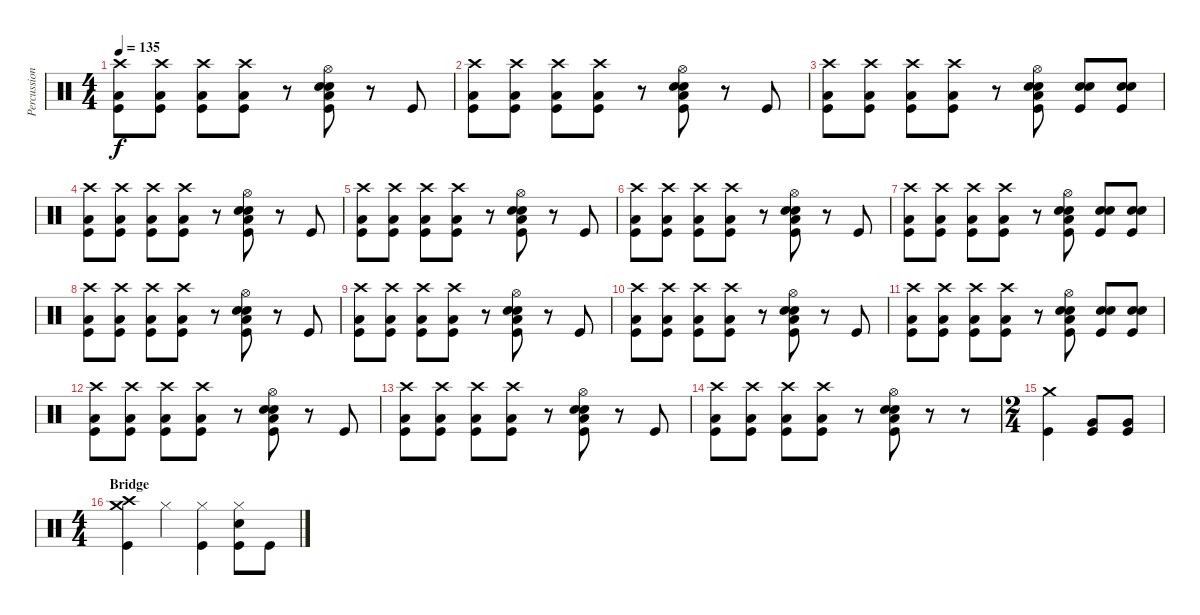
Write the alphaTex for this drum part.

\track ("Percussions" "Percussion") {instrument percussion}
\staff {score}
\articulation defaults
\ts (4 4)
\tempo 135
\clef neutral
\ks c
("Crash high (hit)" "Low Floor Tom (hit)" "Kick (hit)").8{dy f} ("Crash high (hit)" "Low Floor Tom (hit)" "Kick (hit)").8 ("Crash high (hit)" "Low Floor Tom (hit)" "Kick (hit)").8 ("Crash high (hit)" "Low Floor Tom (hit)" "Kick (hit)").8 r.8 ("Hi-Hat (open)" "Electric Snare (hit)" "Snare (hit) 2" "Low Floor Tom (hit)" "Kick (hit)").8 r.8 "Kick (hit)".8 |
("Crash high (hit)" "Low Floor Tom (hit)" "Kick (hit)").8 ("Crash high (hit)" "Low Floor Tom (hit)" "Kick (hit)").8 ("Crash high (hit)" "Low Floor Tom (hit)" "Kick (hit)").8 ("Crash high (hit)" "Low Floor Tom (hit)" "Kick (hit)").8 r.8 ("Hi-Hat (open)" "Electric Snare (hit)" "Snare (hit) 2" "Low Floor Tom (hit)" "Kick (hit)").8 r.8 "Kick (hit)".8 |
("Crash high (hit)" "Low Floor Tom (hit)" "Kick (hit)").8 ("Crash high (hit)" "Low Floor Tom (hit)" "Kick (hit)").8 ("Crash high (hit)" "Low Floor Tom (hit)" "Kick (hit)").8 ("Crash high (hit)" "Low Floor Tom (hit)" "Kick (hit)").8 r.8 ("Hi-Hat (open)" "Electric Snare (hit)" "Snare (hit) 2" "Low Floor Tom (hit)" "Kick (hit)").8 ("Electric Snare (hit)" "Snare (hit) 2" "Kick (hit)").8 ("Electric Snare (hit)" "Snare (hit) 2" "Kick (hit)").8 |
("Crash high (hit)" "Low Floor Tom (hit)" "Kick (hit)").8 ("Crash high (hit)" "Low Floor Tom (hit)" "Kick (hit)").8 ("Crash high (hit)" "Low Floor Tom (hit)" "Kick (hit)").8 ("Crash high (hit)" "Low Floor Tom (hit)" "Kick (hit)").8 r.8 ("Hi-Hat (open)" "Electric Snare (hit)" "Snare (hit) 2" "Low Floor Tom (hit)" "Kick (hit)").8 r.8 "Kick (hit)".8 |
("Crash high (hit)" "Low Floor Tom (hit)" "Kick (hit)").8 ("Crash high (hit)" "Low Floor Tom (hit)" "Kick (hit)").8 ("Crash high (hit)" "Low Floor Tom (hit)" "Kick (hit)").8 ("Crash high (hit)" "Low Floor Tom (hit)" "Kick (hit)").8 r.8 ("Hi-Hat (open)" "Electric Snare (hit)" "Snare (hit) 2" "Low Floor Tom (hit)" "Kick (hit)").8 r.8 "Kick (hit)".8 |
("Crash high (hit)" "Low Floor Tom (hit)" "Kick (hit)").8 ("Crash high (hit)" "Low Floor Tom (hit)" "Kick (hit)").8 ("Crash high (hit)" "Low Floor Tom (hit)" "Kick (hit)").8 ("Crash high (hit)" "Low Floor Tom (hit)" "Kick (hit)").8 r.8 ("Hi-Hat (open)" "Electric Snare (hit)" "Snare (hit) 2" "Low Floor Tom (hit)" "Kick (hit)").8 r.8 "Kick (hit)".8 |
("Crash high (hit)" "Low Floor Tom (hit)" "Kick (hit)").8 ("Crash high (hit)" "Low Floor Tom (hit)" "Kick (hit)").8 ("Crash high (hit)" "Low Floor Tom (hit)" "Kick (hit)").8 ("Crash high (hit)" "Low Floor Tom (hit)" "Kick (hit)").8 r.8 ("Hi-Hat (open)" "Electric Snare (hit)" "Snare (hit) 2" "Low Floor Tom (hit)" "Kick (hit)").8 ("Electric Snare (hit)" "Snare (hit) 2" "Kick (hit)").8 ("Electric Snare (hit)" "Snare (hit) 2" "Kick (hit)").8 |
("Crash high (hit)" "Low Floor Tom (hit)" "Kick (hit)").8 ("Crash high (hit)" "Low Floor Tom (hit)" "Kick (hit)").8 ("Crash high (hit)" "Low Floor Tom (hit)" "Kick (hit)").8 ("Crash high (hit)" "Low Floor Tom (hit)" "Kick (hit)").8 r.8 ("Hi-Hat (open)" "Electric Snare (hit)" "Snare (hit) 2" "Low Floor Tom (hit)" "Kick (hit)").8 r.8 "Kick (hit)".8 |
("Crash high (hit)" "Low Floor Tom (hit)" "Kick (hit)").8 ("Crash high (hit)" "Low Floor Tom (hit)" "Kick (hit)").8 ("Crash high (hit)" "Low Floor Tom (hit)" "Kick (hit)").8 ("Crash high (hit)" "Low Floor Tom (hit)" "Kick (hit)").8 r.8 ("Hi-Hat (open)" "Electric Snare (hit)" "Snare (hit) 2" "Low Floor Tom (hit)" "Kick (hit)").8 r.8 "Kick (hit)".8 |
("Crash high (hit)" "Low Floor Tom (hit)" "Kick (hit)").8 ("Crash high (hit)" "Low Floor Tom (hit)" "Kick (hit)").8 ("Crash high (hit)" "Low Floor Tom (hit)" "Kick (hit)").8 ("Crash high (hit)" "Low Floor Tom (hit)" "Kick (hit)").8 r.8 ("Hi-Hat (open)" "Electric Snare (hit)" "Snare (hit) 2" "Low Floor Tom (hit)" "Kick (hit)").8 r.8 "Kick (hit)".8 |
("Crash high (hit)" "Low Floor Tom (hit)" "Kick (hit)").8 ("Crash high (hit)" "Low Floor Tom (hit)" "Kick (hit)").8 ("Crash high (hit)" "Low Floor Tom (hit)" "Kick (hit)").8 ("Crash high (hit)" "Low Floor Tom (hit)" "Kick (hit)").8 r.8 ("Hi-Hat (open)" "Electric Snare (hit)" "Snare (hit) 2" "Low Floor Tom (hit)" "Kick (hit)").8 ("Electric Snare (hit)" "Snare (hit) 2" "Kick (hit)").8 ("Electric Snare (hit)" "Snare (hit) 2" "Kick (hit)").8 |
("Crash high (hit)" "Low Floor Tom (hit)" "Kick (hit)").8 ("Crash high (hit)" "Low Floor Tom (hit)" "Kick (hit)").8 ("Crash high (hit)" "Low Floor Tom (hit)" "Kick (hit)").8 ("Crash high (hit)" "Low Floor Tom (hit)" "Kick (hit)").8 r.8 ("Hi-Hat (open)" "Electric Snare (hit)" "Snare (hit) 2" "Low Floor Tom (hit)" "Kick (hit)").8 r.8 "Kick (hit)".8 |
("Crash high (hit)" "Low Floor Tom (hit)" "Kick (hit)").8 ("Crash high (hit)" "Low Floor Tom (hit)" "Kick (hit)").8 ("Crash high (hit)" "Low Floor Tom (hit)" "Kick (hit)").8 ("Crash high (hit)" "Low Floor Tom (hit)" "Kick (hit)").8 r.8 ("Hi-Hat (open)" "Electric Snare (hit)" "Snare (hit) 2" "Low Floor Tom (hit)" "Kick (hit)").8 r.8 "Kick (hit)".8 |
("Crash high (hit)" "Low Floor Tom (hit)" "Kick (hit)").8 ("Crash high (hit)" "Low Floor Tom (hit)" "Kick (hit)").8 ("Crash high (hit)" "Low Floor Tom (hit)" "Kick (hit)").8 ("Crash high (hit)" "Low Floor Tom (hit)" "Kick (hit)").8 r.8 ("Hi-Hat (open)" "Electric Snare (hit)" "Snare (hit) 2" "Low Floor Tom (hit)" "Kick (hit)").8 r.8 r.8 |
\ts (2 4)
("Crash medium (hit)" "Kick (hit)").4 ("Very Low Tom (hit)" "Kick (hit)").8 ("Very Low Tom (hit)" "Kick (hit)").8 |
\ts (4 4)
\section ("" "Bridge")
("Crash high (hit)" "Crash medium (hit)" "Kick (hit)").4 "Hi-Hat (closed)".4 ("Hi-Hat (closed)" "Kick (hit)").4 ("Hi-Hat (closed)" "Electric Snare (hit)" "Kick (hit)").8 "Kick (hit)".8
